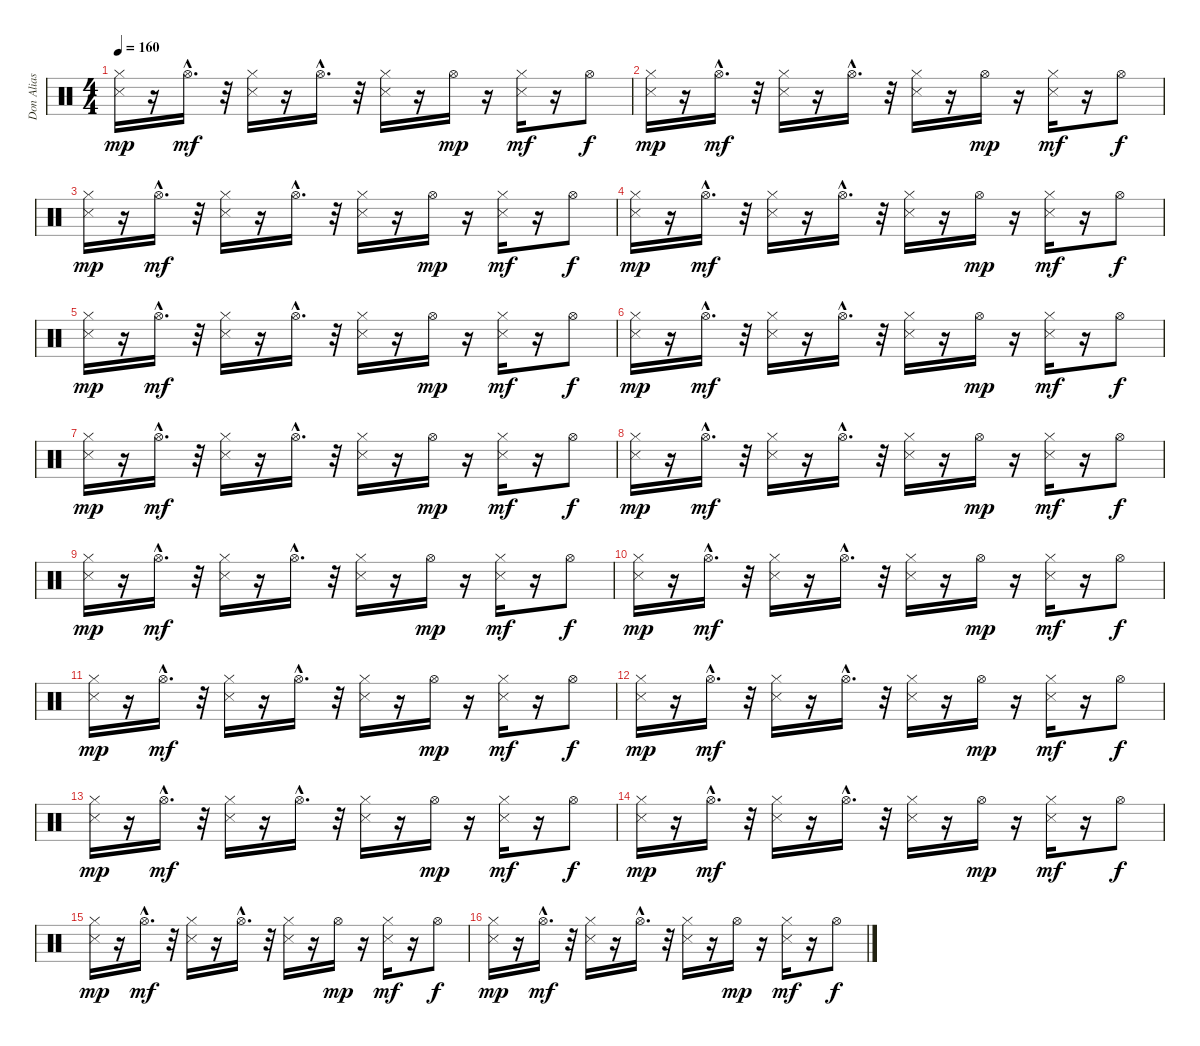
\track ("Don Alias" "Don Alias") {instrument percussion}
\staff {score}
\articulation defaults
\ts (4 4)
\tempo 160
\clef neutral
\ks c
("Snare (side stick) 3" "Hi-Hat (closed)").16{dy mp} r.16 "Hi-Hat (open)"{hac}.16{d dy mf} r.32 ("Snare (side stick) 3" "Hi-Hat (closed)").16 r.16 "Hi-Hat (open)"{hac}.16{d} r.32 ("Snare (side stick) 3" "Hi-Hat (closed)").16 r.16 "Hi-Hat (open)".16{dy mp} r.16 ("Snare (side stick) 3" "Hi-Hat (closed)").16{dy mf} r.16 "Hi-Hat (open)".8{dy f} |
("Snare (side stick) 3" "Hi-Hat (closed)").16{dy mp} r.16 "Hi-Hat (open)"{hac}.16{d dy mf} r.32 ("Snare (side stick) 3" "Hi-Hat (closed)").16 r.16 "Hi-Hat (open)"{hac}.16{d} r.32 ("Snare (side stick) 3" "Hi-Hat (closed)").16 r.16 "Hi-Hat (open)".16{dy mp} r.16 ("Snare (side stick) 3" "Hi-Hat (closed)").16{dy mf} r.16 "Hi-Hat (open)".8{dy f} |
("Snare (side stick) 3" "Hi-Hat (closed)").16{dy mp} r.16 "Hi-Hat (open)"{hac}.16{d dy mf} r.32 ("Snare (side stick) 3" "Hi-Hat (closed)").16 r.16 "Hi-Hat (open)"{hac}.16{d} r.32 ("Snare (side stick) 3" "Hi-Hat (closed)").16 r.16 "Hi-Hat (open)".16{dy mp} r.16 ("Snare (side stick) 3" "Hi-Hat (closed)").16{dy mf} r.16 "Hi-Hat (open)".8{dy f} |
("Snare (side stick) 3" "Hi-Hat (closed)").16{dy mp} r.16 "Hi-Hat (open)"{hac}.16{d dy mf} r.32 ("Snare (side stick) 3" "Hi-Hat (closed)").16 r.16 "Hi-Hat (open)"{hac}.16{d} r.32 ("Snare (side stick) 3" "Hi-Hat (closed)").16 r.16 "Hi-Hat (open)".16{dy mp} r.16 ("Snare (side stick) 3" "Hi-Hat (closed)").16{dy mf} r.16 "Hi-Hat (open)".8{dy f} |
("Snare (side stick) 3" "Hi-Hat (closed)").16{dy mp} r.16 "Hi-Hat (open)"{hac}.16{d dy mf} r.32 ("Snare (side stick) 3" "Hi-Hat (closed)").16 r.16 "Hi-Hat (open)"{hac}.16{d} r.32 ("Snare (side stick) 3" "Hi-Hat (closed)").16 r.16 "Hi-Hat (open)".16{dy mp} r.16 ("Snare (side stick) 3" "Hi-Hat (closed)").16{dy mf} r.16 "Hi-Hat (open)".8{dy f} |
("Snare (side stick) 3" "Hi-Hat (closed)").16{dy mp} r.16 "Hi-Hat (open)"{hac}.16{d dy mf} r.32 ("Snare (side stick) 3" "Hi-Hat (closed)").16 r.16 "Hi-Hat (open)"{hac}.16{d} r.32 ("Snare (side stick) 3" "Hi-Hat (closed)").16 r.16 "Hi-Hat (open)".16{dy mp} r.16 ("Snare (side stick) 3" "Hi-Hat (closed)").16{dy mf} r.16 "Hi-Hat (open)".8{dy f} |
("Snare (side stick) 3" "Hi-Hat (closed)").16{dy mp} r.16 "Hi-Hat (open)"{hac}.16{d dy mf} r.32 ("Snare (side stick) 3" "Hi-Hat (closed)").16 r.16 "Hi-Hat (open)"{hac}.16{d} r.32 ("Snare (side stick) 3" "Hi-Hat (closed)").16 r.16 "Hi-Hat (open)".16{dy mp} r.16 ("Snare (side stick) 3" "Hi-Hat (closed)").16{dy mf} r.16 "Hi-Hat (open)".8{dy f} |
("Snare (side stick) 3" "Hi-Hat (closed)").16{dy mp} r.16 "Hi-Hat (open)"{hac}.16{d dy mf} r.32 ("Snare (side stick) 3" "Hi-Hat (closed)").16 r.16 "Hi-Hat (open)"{hac}.16{d} r.32 ("Snare (side stick) 3" "Hi-Hat (closed)").16 r.16 "Hi-Hat (open)".16{dy mp} r.16 ("Snare (side stick) 3" "Hi-Hat (closed)").16{dy mf} r.16 "Hi-Hat (open)".8{dy f} |
("Snare (side stick) 3" "Hi-Hat (closed)").16{dy mp} r.16 "Hi-Hat (open)"{hac}.16{d dy mf} r.32 ("Snare (side stick) 3" "Hi-Hat (closed)").16 r.16 "Hi-Hat (open)"{hac}.16{d} r.32 ("Snare (side stick) 3" "Hi-Hat (closed)").16 r.16 "Hi-Hat (open)".16{dy mp} r.16 ("Snare (side stick) 3" "Hi-Hat (closed)").16{dy mf} r.16 "Hi-Hat (open)".8{dy f} |
("Snare (side stick) 3" "Hi-Hat (closed)").16{dy mp} r.16 "Hi-Hat (open)"{hac}.16{d dy mf} r.32 ("Snare (side stick) 3" "Hi-Hat (closed)").16 r.16 "Hi-Hat (open)"{hac}.16{d} r.32 ("Snare (side stick) 3" "Hi-Hat (closed)").16 r.16 "Hi-Hat (open)".16{dy mp} r.16 ("Snare (side stick) 3" "Hi-Hat (closed)").16{dy mf} r.16 "Hi-Hat (open)".8{dy f} |
("Snare (side stick) 3" "Hi-Hat (closed)").16{dy mp} r.16 "Hi-Hat (open)"{hac}.16{d dy mf} r.32 ("Snare (side stick) 3" "Hi-Hat (closed)").16 r.16 "Hi-Hat (open)"{hac}.16{d} r.32 ("Snare (side stick) 3" "Hi-Hat (closed)").16 r.16 "Hi-Hat (open)".16{dy mp} r.16 ("Snare (side stick) 3" "Hi-Hat (closed)").16{dy mf} r.16 "Hi-Hat (open)".8{dy f} |
("Snare (side stick) 3" "Hi-Hat (closed)").16{dy mp} r.16 "Hi-Hat (open)"{hac}.16{d dy mf} r.32 ("Snare (side stick) 3" "Hi-Hat (closed)").16 r.16 "Hi-Hat (open)"{hac}.16{d} r.32 ("Snare (side stick) 3" "Hi-Hat (closed)").16 r.16 "Hi-Hat (open)".16{dy mp} r.16 ("Snare (side stick) 3" "Hi-Hat (closed)").16{dy mf} r.16 "Hi-Hat (open)".8{dy f} |
("Snare (side stick) 3" "Hi-Hat (closed)").16{dy mp} r.16 "Hi-Hat (open)"{hac}.16{d dy mf} r.32 ("Snare (side stick) 3" "Hi-Hat (closed)").16 r.16 "Hi-Hat (open)"{hac}.16{d} r.32 ("Snare (side stick) 3" "Hi-Hat (closed)").16 r.16 "Hi-Hat (open)".16{dy mp} r.16 ("Snare (side stick) 3" "Hi-Hat (closed)").16{dy mf} r.16 "Hi-Hat (open)".8{dy f} |
("Snare (side stick) 3" "Hi-Hat (closed)").16{dy mp} r.16 "Hi-Hat (open)"{hac}.16{d dy mf} r.32 ("Snare (side stick) 3" "Hi-Hat (closed)").16 r.16 "Hi-Hat (open)"{hac}.16{d} r.32 ("Snare (side stick) 3" "Hi-Hat (closed)").16 r.16 "Hi-Hat (open)".16{dy mp} r.16 ("Snare (side stick) 3" "Hi-Hat (closed)").16{dy mf} r.16 "Hi-Hat (open)".8{dy f} |
("Snare (side stick) 3" "Hi-Hat (closed)").16{dy mp} r.16 "Hi-Hat (open)"{hac}.16{d dy mf} r.32 ("Snare (side stick) 3" "Hi-Hat (closed)").16 r.16 "Hi-Hat (open)"{hac}.16{d} r.32 ("Snare (side stick) 3" "Hi-Hat (closed)").16 r.16 "Hi-Hat (open)".16{dy mp} r.16 ("Snare (side stick) 3" "Hi-Hat (closed)").16{dy mf} r.16 "Hi-Hat (open)".8{dy f} |
("Snare (side stick) 3" "Hi-Hat (closed)").16{dy mp} r.16 "Hi-Hat (open)"{hac}.16{d dy mf} r.32 ("Snare (side stick) 3" "Hi-Hat (closed)").16 r.16 "Hi-Hat (open)"{hac}.16{d} r.32 ("Snare (side stick) 3" "Hi-Hat (closed)").16 r.16 "Hi-Hat (open)".16{dy mp} r.16 ("Snare (side stick) 3" "Hi-Hat (closed)").16{dy mf} r.16 "Hi-Hat (open)".8{dy f}
